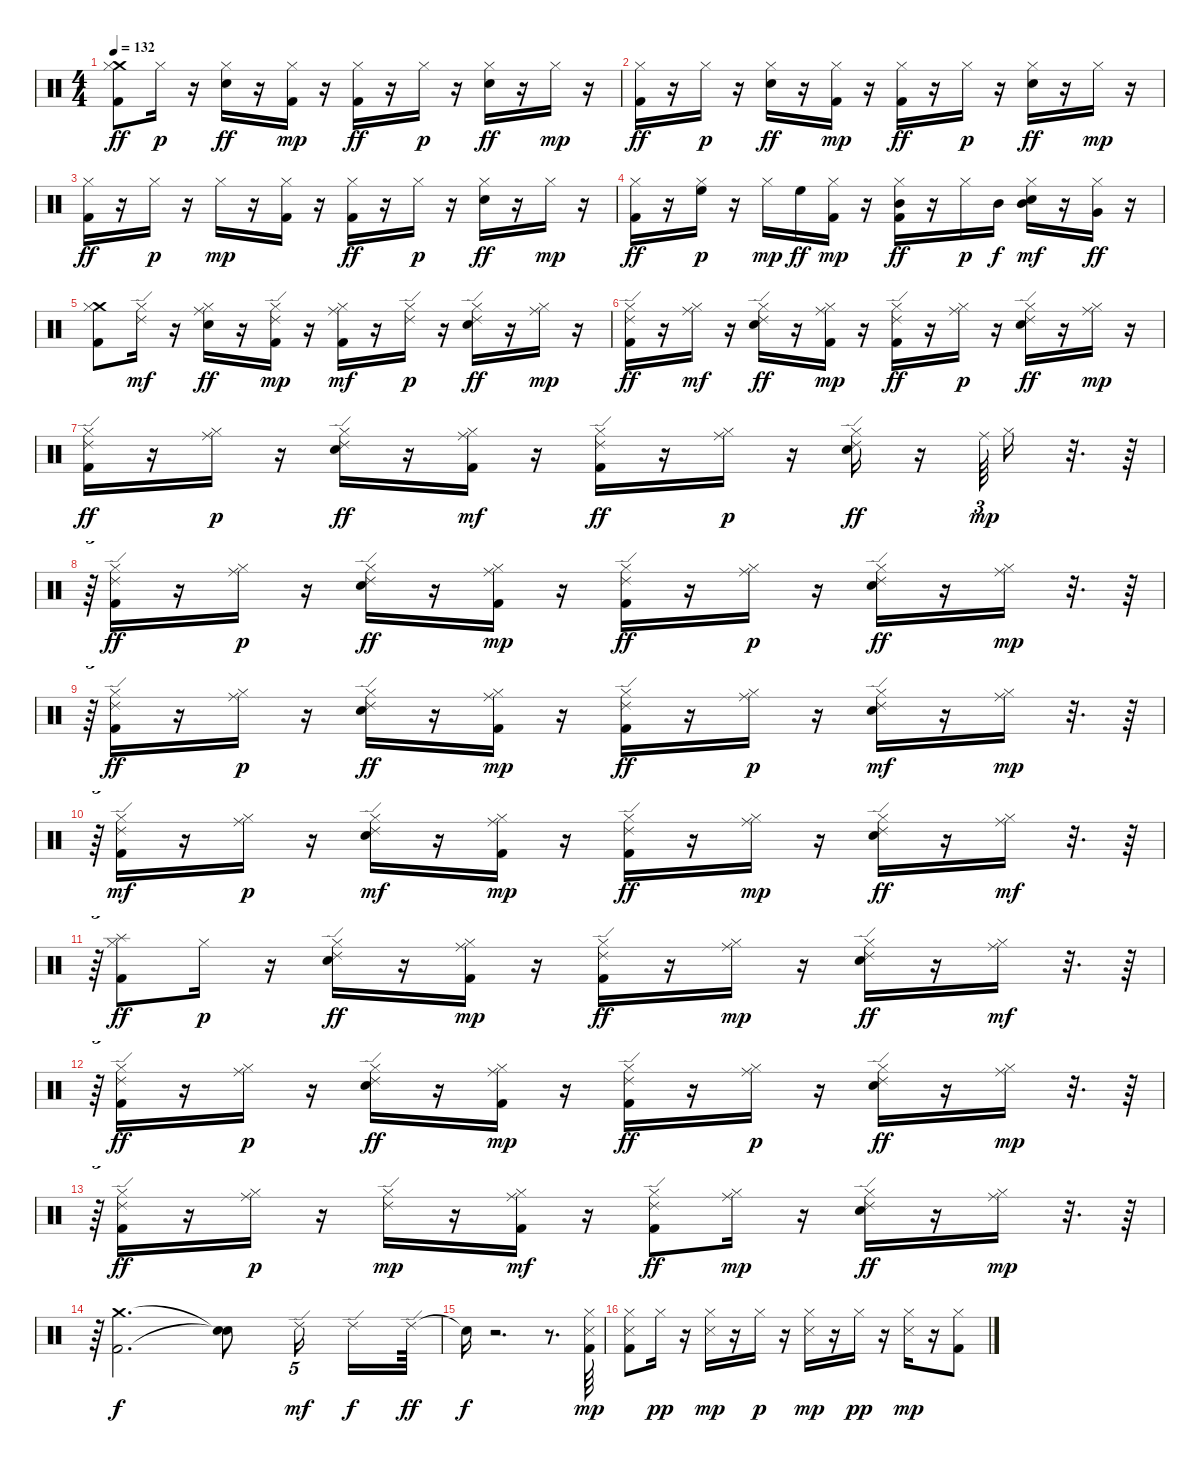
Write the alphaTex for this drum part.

\track "" {instrument percussion}
\staff {score}
\articulation defaults
\ts (4 4)
\tempo 132
\clef neutral
\ks c
("Crash medium (hit)" "Hi-Hat (closed)" "Kick (hit) 2").8{dy ff} "Hi-Hat (closed)".16{dy p} r.16 ("Hi-Hat (closed)" "Snare (hit) 2").16{dy ff} r.16 ("Kick (hit) 2" "Hi-Hat (closed)").16{dy mp} r.16 ("Hi-Hat (closed)" "Kick (hit) 2").16{dy ff} r.16 "Hi-Hat (closed)".16{dy p} r.16 ("Hi-Hat (closed)" "Snare (hit) 2").16{dy ff} r.16 "Hi-Hat (closed)".16{dy mp} r.16 |
("Hi-Hat (closed)" "Kick (hit) 2").16{dy ff} r.16 "Hi-Hat (closed)".16{dy p} r.16 ("Hi-Hat (closed)" "Snare (hit) 2").16{dy ff} r.16 ("Kick (hit) 2" "Hi-Hat (closed)").16{dy mp} r.16 ("Hi-Hat (closed)" "Kick (hit) 2").16{dy ff} r.16 "Hi-Hat (closed)".16{dy p} r.16 ("Hi-Hat (closed)" "Snare (hit) 2").16{dy ff} r.16 "Hi-Hat (closed)".16{dy mp} r.16 |
("Hi-Hat (closed)" "Kick (hit) 2").16{dy ff} r.16 "Hi-Hat (closed)".16{dy p} r.16 "Hi-Hat (closed)".16{dy mp} r.16 ("Kick (hit) 2" "Hi-Hat (closed)").16 r.16 ("Hi-Hat (closed)" "Kick (hit) 2").16{dy ff} r.16 "Hi-Hat (closed)".16{dy p} r.16 ("Hi-Hat (closed)" "Snare (hit) 2").16{dy ff} r.16 "Hi-Hat (closed)".16{dy mp} r.16 |
("Hi-Hat (closed)" "Kick (hit) 2").16{dy ff} r.16 ("High Floor Tom (hit)" "Hi-Hat (closed)").16{dy p} r.16 "Hi-Hat (closed)".16{dy mp} "High Floor Tom (hit)".16{dy ff} ("Kick (hit) 2" "Hi-Hat (closed)").16{dy mp} r.16 ("Mid Tom (hit)" "Hi-Hat (closed)" "Kick (hit) 2").16{dy ff} r.16 "Hi-Hat (closed)".16{dy p} "Mid Tom (hit)".16{dy f} ("Hi-Hat (closed)" "Snare (hit) 2" "Mid Tom (hit)").16{dy mf} r.16 ("Hi-Hat (closed)" "Very Low Tom (hit)").16{dy ff} r.16 |
("Crash medium (hit)" "Hi-Hat (closed)" "Kick (hit) 2").8 ("Hi-Hat (closed)" "Ride (edge) 2").16{dy mf} r.16 ("Hi-Hat (closed)" "Snare (hit) 2" "Ride (middle)").16{dy ff} r.16 ("Ride (edge) 2" "Kick (hit) 2" "Hi-Hat (closed)").16{dy mp} r.16 ("Hi-Hat (closed)" "Kick (hit) 2" "Ride (middle)").16{dy mf} r.16 ("Ride (edge) 2" "Hi-Hat (closed)").16{dy p} r.16 ("Ride (edge) 2" "Hi-Hat (closed)" "Snare (hit) 2").16{dy ff} r.16 ("Ride (middle)" "Hi-Hat (closed)").16{dy mp} r.16 |
("Ride (edge) 2" "Hi-Hat (closed)" "Kick (hit) 2").16{dy ff} r.16 ("Hi-Hat (closed)" "Ride (middle)").16{dy mf} r.16 ("Ride (edge) 2" "Hi-Hat (closed)" "Snare (hit) 2").16{dy ff} r.16 ("Ride (middle)" "Kick (hit) 2" "Hi-Hat (closed)").16{dy mp} r.16 ("Ride (edge) 2" "Hi-Hat (closed)" "Kick (hit) 2").16{dy ff} r.16 ("Ride (middle)" "Hi-Hat (closed)").16{dy p} r.16 ("Ride (edge) 2" "Hi-Hat (closed)" "Snare (hit) 2").16{dy ff} r.16 ("Ride (middle)" "Hi-Hat (closed)").16{dy mp} r.16 |
("Hi-Hat (closed)" "Kick (hit) 2" "Ride (edge) 2").16{dy ff} r.16 ("Ride (middle)" "Hi-Hat (closed)").16{dy p} r.16 ("Hi-Hat (closed)" "Snare (hit) 2" "Ride (edge) 2").16{dy ff} r.16 ("Kick (hit) 2" "Hi-Hat (closed)" "Ride (middle)").16{dy mf} r.16 ("Hi-Hat (closed)" "Kick (hit) 2" "Ride (edge) 2").16{dy ff} r.16 ("Ride (middle)" "Hi-Hat (closed)").16{dy p} r.16 ("Ride (edge) 2" "Hi-Hat (closed)" "Snare (hit) 2").16{dy ff} r.16 "Ride (middle)".64{tu (3 2) dy mp} "Hi-Hat (closed)".16 r.32{d} r.64 |
r.64{tu (3 2)} ("Ride (edge) 2" "Hi-Hat (closed)" "Kick (hit) 2").16{dy ff} r.16 ("Ride (middle)" "Hi-Hat (closed)").16{dy p} r.16 ("Ride (edge) 2" "Hi-Hat (closed)" "Snare (hit) 2").16{dy ff} r.16 ("Kick (hit) 2" "Hi-Hat (closed)" "Ride (middle)").16{dy mp} r.16 ("Ride (edge) 2" "Hi-Hat (closed)" "Kick (hit) 2").16{dy ff} r.16 ("Ride (middle)" "Hi-Hat (closed)").16{dy p} r.16 ("Ride (edge) 2" "Hi-Hat (closed)" "Snare (hit) 2").16{dy ff} r.16 ("Ride (middle)" "Hi-Hat (closed)").16{dy mp} r.32{d} r.64 |
r.64{tu (3 2)} ("Hi-Hat (closed)" "Kick (hit) 2" "Ride (edge) 2").16{dy ff} r.16 ("Ride (middle)" "Hi-Hat (closed)").16{dy p} r.16 ("Ride (edge) 2" "Hi-Hat (closed)" "Snare (hit) 2").16{dy ff} r.16 ("Ride (middle)" "Kick (hit) 2" "Hi-Hat (closed)").16{dy mp} r.16 ("Ride (edge) 2" "Hi-Hat (closed)" "Kick (hit) 2").16{dy ff} r.16 ("Ride (middle)" "Hi-Hat (closed)").16{dy p} r.16 ("Hi-Hat (closed)" "Snare (hit) 2" "Ride (edge) 2").16{dy mf} r.16 ("Ride (middle)" "Hi-Hat (closed)").16{dy mp} r.32{d} r.64 |
r.64{tu (3 2)} ("Hi-Hat (closed)" "Kick (hit) 2" "Ride (edge) 2").16{dy mf} r.16 ("Ride (middle)" "Hi-Hat (closed)").16{dy p} r.16 ("Hi-Hat (closed)" "Snare (hit) 2" "Ride (edge) 2").16{dy mf} r.16 ("Ride (middle)" "Kick (hit) 2" "Hi-Hat (closed)").16{dy mp} r.16 ("Hi-Hat (closed)" "Kick (hit) 2" "Ride (edge) 2").16{dy ff} r.16 ("Hi-Hat (closed)" "Ride (middle)").16{dy mp} r.16 ("Ride (edge) 2" "Hi-Hat (closed)" "Snare (hit) 2").16{dy ff} r.16 ("Hi-Hat (closed)" "Ride (middle)").16{dy mf} r.32{d} r.64 |
r.64{tu (3 2)} ("Splash (hit)" "Hi-Hat (closed)" "Kick (hit) 2").8{dy ff} "Hi-Hat (closed)".16{dy p} r.16 ("Ride (edge) 2" "Hi-Hat (closed)" "Snare (hit) 2").16{dy ff} r.16 ("Ride (middle)" "Kick (hit) 2" "Hi-Hat (closed)").16{dy mp} r.16 ("Ride (edge) 2" "Hi-Hat (closed)" "Kick (hit) 2").16{dy ff} r.16 ("Hi-Hat (closed)" "Ride (middle)").16{dy mp} r.16 ("Hi-Hat (closed)" "Snare (hit) 2" "Ride (edge) 2").16{dy ff} r.16 ("Hi-Hat (closed)" "Ride (middle)").16{dy mf} r.32{d} r.64 |
r.64{tu (3 2)} ("Ride (edge) 2" "Hi-Hat (closed)" "Kick (hit) 2").16{dy ff} r.16 ("Ride (middle)" "Hi-Hat (closed)").16{dy p} r.16 ("Ride (edge) 2" "Hi-Hat (closed)" "Snare (hit) 2").16{dy ff} r.16 ("Ride (middle)" "Kick (hit) 2" "Hi-Hat (closed)").16{dy mp} r.16 ("Ride (edge) 2" "Hi-Hat (closed)" "Kick (hit) 2").16{dy ff} r.16 ("Ride (middle)" "Hi-Hat (closed)").16{dy p} r.16 ("Ride (edge) 2" "Hi-Hat (closed)" "Snare (hit) 2").16{dy ff} r.16 ("Ride (middle)" "Hi-Hat (closed)").16{dy mp} r.32{d} r.64 |
r.64{tu (3 2)} ("Hi-Hat (closed)" "Kick (hit) 2" "Ride (edge) 2").16{dy ff} r.16 ("Ride (middle)" "Hi-Hat (closed)").16{dy p} r.16 ("Hi-Hat (closed)" "Ride (edge) 2").16{dy mp} r.16 ("Kick (hit) 2" "Hi-Hat (closed)" "Ride (middle)").16{dy mf} r.16 ("Hi-Hat (closed)" "Kick (hit) 2" "Ride (edge) 2").8{dy ff} ("Hi-Hat (closed)" "Ride (middle)").16{dy mp} r.16 ("Ride (edge) 2" "Hi-Hat (closed)" "Snare (hit) 2").16{dy ff} r.16 ("Ride (middle)" "Hi-Hat (closed)").16{dy mp} r.32{d} r.64 |
r.64{tu (3 2)} ("Crash medium (hit)" "Kick (hit) 2").2{d dy f} ("Snare (hit)"{t} "Snare (hit)"{t}).8 "Ride (edge) 2".16{tu (5 4) dy mf beam splitsecondary} "Ride (edge) 2".16{dy f} "Ride (edge) 2".64{dy ff} |
"Snare (hit)"{t}.16{dy f} r.2{d} r.8{d} ("Snare (side stick) 3" "Hi-Hat (closed)" "Kick (hit) 2").64{dy mp} |
("Snare (side stick) 3" "Hi-Hat (closed)" "Kick (hit) 2").8 "Hi-Hat (closed)".16{dy pp} r.16 ("Snare (side stick) 3" "Hi-Hat (closed)").16{dy mp} r.16 "Hi-Hat (closed)".16{dy p} r.16 ("Snare (side stick) 3" "Hi-Hat (closed)").16{dy mp} r.16 "Hi-Hat (closed)".16{dy pp} r.16 ("Snare (side stick) 3" "Hi-Hat (closed)").16{dy mp} r.16 ("Hi-Hat (closed)" "Kick (hit) 2").8
